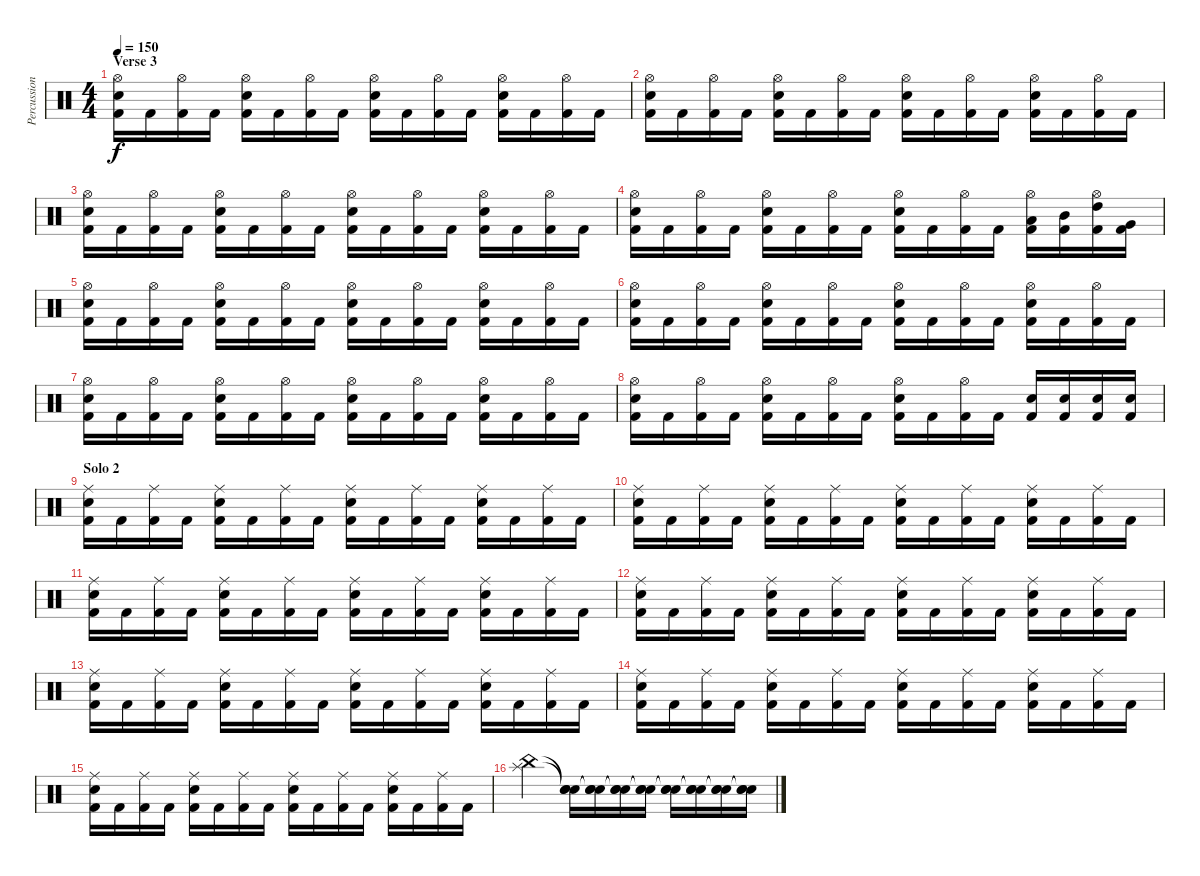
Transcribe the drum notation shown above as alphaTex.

\track ("Percussion" "Percussion") {instrument percussion}
\staff {score}
\articulation defaults
\ts (4 4)
\section ("" "Verse 3")
\tempo 150
\clef neutral
\ks c
("Hi-Hat (open)" "Snare (hit) 2" "Kick (hit) 2").16{dy f} "Kick (hit) 2".16 ("Hi-Hat (open)" "Kick (hit) 2").16 "Kick (hit) 2".16 ("Hi-Hat (open)" "Snare (hit) 2" "Kick (hit) 2").16 "Kick (hit) 2".16 ("Hi-Hat (open)" "Kick (hit) 2").16 "Kick (hit) 2".16 ("Hi-Hat (open)" "Snare (hit) 2" "Kick (hit) 2").16 "Kick (hit) 2".16 ("Hi-Hat (open)" "Kick (hit) 2").16 "Kick (hit) 2".16 ("Hi-Hat (open)" "Snare (hit) 2" "Kick (hit) 2").16 "Kick (hit) 2".16 ("Hi-Hat (open)" "Kick (hit) 2").16 "Kick (hit) 2".16 |
("Hi-Hat (open)" "Snare (hit) 2" "Kick (hit) 2").16 "Kick (hit) 2".16 ("Hi-Hat (open)" "Kick (hit) 2").16 "Kick (hit) 2".16 ("Hi-Hat (open)" "Snare (hit) 2" "Kick (hit) 2").16 "Kick (hit) 2".16 ("Hi-Hat (open)" "Kick (hit) 2").16 "Kick (hit) 2".16 ("Hi-Hat (open)" "Snare (hit) 2" "Kick (hit) 2").16 "Kick (hit) 2".16 ("Hi-Hat (open)" "Kick (hit) 2").16 "Kick (hit) 2".16 ("Hi-Hat (open)" "Snare (hit) 2" "Kick (hit) 2").16 "Kick (hit) 2".16 ("Hi-Hat (open)" "Kick (hit) 2").16 "Kick (hit) 2".16 |
("Hi-Hat (open)" "Snare (hit) 2" "Kick (hit) 2").16 "Kick (hit) 2".16 ("Hi-Hat (open)" "Kick (hit) 2").16 "Kick (hit) 2".16 ("Hi-Hat (open)" "Snare (hit) 2" "Kick (hit) 2").16 "Kick (hit) 2".16 ("Hi-Hat (open)" "Kick (hit) 2").16 "Kick (hit) 2".16 ("Hi-Hat (open)" "Snare (hit) 2" "Kick (hit) 2").16 "Kick (hit) 2".16 ("Hi-Hat (open)" "Kick (hit) 2").16 "Kick (hit) 2".16 ("Hi-Hat (open)" "Snare (hit) 2" "Kick (hit) 2").16 "Kick (hit) 2".16 ("Hi-Hat (open)" "Kick (hit) 2").16 "Kick (hit) 2".16 |
("Hi-Hat (open)" "Snare (hit) 2" "Kick (hit) 2").16 "Kick (hit) 2".16 ("Hi-Hat (open)" "Kick (hit) 2").16 "Kick (hit) 2".16 ("Hi-Hat (open)" "Snare (hit) 2" "Kick (hit) 2").16 "Kick (hit) 2".16 ("Hi-Hat (open)" "Kick (hit) 2").16 "Kick (hit) 2".16 ("Hi-Hat (open)" "Snare (hit) 2" "Kick (hit) 2").16 "Kick (hit) 2".16 ("Hi-Hat (open)" "Kick (hit) 2").16 "Kick (hit) 2".16 ("Hi-Hat (open)" "Low Tom (hit)" "Kick (hit) 2").16 ("Mid Tom (hit)" "Kick (hit) 2").16 ("Hi-Hat (open)" "High Tom (hit)" "Kick (hit) 2").16 ("Very Low Tom (hit)" "Kick (hit) 2").16 |
("Hi-Hat (open)" "Snare (hit) 2" "Kick (hit) 2").16 "Kick (hit) 2".16 ("Hi-Hat (open)" "Kick (hit) 2").16 "Kick (hit) 2".16 ("Hi-Hat (open)" "Snare (hit) 2" "Kick (hit) 2").16 "Kick (hit) 2".16 ("Hi-Hat (open)" "Kick (hit) 2").16 "Kick (hit) 2".16 ("Hi-Hat (open)" "Snare (hit) 2" "Kick (hit) 2").16 "Kick (hit) 2".16 ("Hi-Hat (open)" "Kick (hit) 2").16 "Kick (hit) 2".16 ("Hi-Hat (open)" "Snare (hit) 2" "Kick (hit) 2").16 "Kick (hit) 2".16 ("Hi-Hat (open)" "Kick (hit) 2").16 "Kick (hit) 2".16 |
("Hi-Hat (open)" "Snare (hit) 2" "Kick (hit) 2").16 "Kick (hit) 2".16 ("Hi-Hat (open)" "Kick (hit) 2").16 "Kick (hit) 2".16 ("Hi-Hat (open)" "Snare (hit) 2" "Kick (hit) 2").16 "Kick (hit) 2".16 ("Hi-Hat (open)" "Kick (hit) 2").16 "Kick (hit) 2".16 ("Hi-Hat (open)" "Snare (hit) 2" "Kick (hit) 2").16 "Kick (hit) 2".16 ("Hi-Hat (open)" "Kick (hit) 2").16 "Kick (hit) 2".16 ("Hi-Hat (open)" "Snare (hit) 2" "Kick (hit) 2").16 "Kick (hit) 2".16 ("Hi-Hat (open)" "Kick (hit) 2").16 "Kick (hit) 2".16 |
("Hi-Hat (open)" "Snare (hit) 2" "Kick (hit) 2").16 "Kick (hit) 2".16 ("Hi-Hat (open)" "Kick (hit) 2").16 "Kick (hit) 2".16 ("Hi-Hat (open)" "Snare (hit) 2" "Kick (hit) 2").16 "Kick (hit) 2".16 ("Hi-Hat (open)" "Kick (hit) 2").16 "Kick (hit) 2".16 ("Hi-Hat (open)" "Snare (hit) 2" "Kick (hit) 2").16 "Kick (hit) 2".16 ("Hi-Hat (open)" "Kick (hit) 2").16 "Kick (hit) 2".16 ("Hi-Hat (open)" "Snare (hit) 2" "Kick (hit) 2").16 "Kick (hit) 2".16 ("Hi-Hat (open)" "Kick (hit) 2").16 "Kick (hit) 2".16 |
("Hi-Hat (open)" "Snare (hit) 2" "Kick (hit) 2").16 "Kick (hit) 2".16 ("Hi-Hat (open)" "Kick (hit) 2").16 "Kick (hit) 2".16 ("Hi-Hat (open)" "Snare (hit) 2" "Kick (hit) 2").16 "Kick (hit) 2".16 ("Hi-Hat (open)" "Kick (hit) 2").16 "Kick (hit) 2".16 ("Hi-Hat (open)" "Snare (hit) 2" "Kick (hit) 2").16 "Kick (hit) 2".16 ("Hi-Hat (open)" "Kick (hit) 2").16 "Kick (hit) 2".16 ("Snare (hit) 2" "Kick (hit) 2").16 ("Snare (hit) 2" "Kick (hit) 2").16 ("Snare (hit) 2" "Kick (hit) 2").16 ("Snare (hit) 2" "Kick (hit) 2").16 |
\section ("" "Solo 2")
("Ride (middle)" "Snare (hit) 2" "Kick (hit) 2").16 "Kick (hit) 2".16 ("Ride (middle)" "Kick (hit) 2").16 "Kick (hit) 2".16 ("Ride (middle)" "Snare (hit) 2" "Kick (hit) 2").16 "Kick (hit) 2".16 ("Ride (middle)" "Kick (hit) 2").16 "Kick (hit) 2".16 ("Ride (middle)" "Snare (hit) 2" "Kick (hit) 2").16 "Kick (hit) 2".16 ("Ride (middle)" "Kick (hit) 2").16 "Kick (hit) 2".16 ("Ride (middle)" "Snare (hit) 2" "Kick (hit) 2").16 "Kick (hit) 2".16 ("Ride (middle)" "Kick (hit) 2").16 "Kick (hit) 2".16 |
("Ride (middle)" "Snare (hit) 2" "Kick (hit) 2").16 "Kick (hit) 2".16 ("Ride (middle)" "Kick (hit) 2").16 "Kick (hit) 2".16 ("Ride (middle)" "Snare (hit) 2" "Kick (hit) 2").16 "Kick (hit) 2".16 ("Ride (middle)" "Kick (hit) 2").16 "Kick (hit) 2".16 ("Ride (middle)" "Snare (hit) 2" "Kick (hit) 2").16 "Kick (hit) 2".16 ("Ride (middle)" "Kick (hit) 2").16 "Kick (hit) 2".16 ("Ride (middle)" "Snare (hit) 2" "Kick (hit) 2").16 "Kick (hit) 2".16 ("Ride (middle)" "Kick (hit) 2").16 "Kick (hit) 2".16 |
("Ride (middle)" "Snare (hit) 2" "Kick (hit) 2").16 "Kick (hit) 2".16 ("Ride (middle)" "Kick (hit) 2").16 "Kick (hit) 2".16 ("Ride (middle)" "Snare (hit) 2" "Kick (hit) 2").16 "Kick (hit) 2".16 ("Ride (middle)" "Kick (hit) 2").16 "Kick (hit) 2".16 ("Ride (middle)" "Snare (hit) 2" "Kick (hit) 2").16 "Kick (hit) 2".16 ("Ride (middle)" "Kick (hit) 2").16 "Kick (hit) 2".16 ("Ride (middle)" "Snare (hit) 2" "Kick (hit) 2").16 "Kick (hit) 2".16 ("Ride (middle)" "Kick (hit) 2").16 "Kick (hit) 2".16 |
("Ride (middle)" "Snare (hit) 2" "Kick (hit) 2").16 "Kick (hit) 2".16 ("Ride (middle)" "Kick (hit) 2").16 "Kick (hit) 2".16 ("Ride (middle)" "Snare (hit) 2" "Kick (hit) 2").16 "Kick (hit) 2".16 ("Ride (middle)" "Kick (hit) 2").16 "Kick (hit) 2".16 ("Ride (middle)" "Snare (hit) 2" "Kick (hit) 2").16 "Kick (hit) 2".16 ("Ride (middle)" "Kick (hit) 2").16 "Kick (hit) 2".16 ("Ride (middle)" "Snare (hit) 2" "Kick (hit) 2").16 "Kick (hit) 2".16 ("Ride (middle)" "Kick (hit) 2").16 "Kick (hit) 2".16 |
("Ride (middle)" "Snare (hit) 2" "Kick (hit) 2").16 "Kick (hit) 2".16 ("Ride (middle)" "Kick (hit) 2").16 "Kick (hit) 2".16 ("Ride (middle)" "Snare (hit) 2" "Kick (hit) 2").16 "Kick (hit) 2".16 ("Ride (middle)" "Kick (hit) 2").16 "Kick (hit) 2".16 ("Ride (middle)" "Snare (hit) 2" "Kick (hit) 2").16 "Kick (hit) 2".16 ("Ride (middle)" "Kick (hit) 2").16 "Kick (hit) 2".16 ("Ride (middle)" "Snare (hit) 2" "Kick (hit) 2").16 "Kick (hit) 2".16 ("Ride (middle)" "Kick (hit) 2").16 "Kick (hit) 2".16 |
("Ride (middle)" "Snare (hit) 2" "Kick (hit) 2").16 "Kick (hit) 2".16 ("Ride (middle)" "Kick (hit) 2").16 "Kick (hit) 2".16 ("Ride (middle)" "Snare (hit) 2" "Kick (hit) 2").16 "Kick (hit) 2".16 ("Ride (middle)" "Kick (hit) 2").16 "Kick (hit) 2".16 ("Ride (middle)" "Snare (hit) 2" "Kick (hit) 2").16 "Kick (hit) 2".16 ("Ride (middle)" "Kick (hit) 2").16 "Kick (hit) 2".16 ("Ride (middle)" "Snare (hit) 2" "Kick (hit) 2").16 "Kick (hit) 2".16 ("Ride (middle)" "Kick (hit) 2").16 "Kick (hit) 2".16 |
("Ride (middle)" "Snare (hit) 2" "Kick (hit) 2").16 "Kick (hit) 2".16 ("Ride (middle)" "Kick (hit) 2").16 "Kick (hit) 2".16 ("Ride (middle)" "Snare (hit) 2" "Kick (hit) 2").16 "Kick (hit) 2".16 ("Ride (middle)" "Kick (hit) 2").16 "Kick (hit) 2".16 ("Ride (middle)" "Snare (hit) 2" "Kick (hit) 2").16 "Kick (hit) 2".16 ("Ride (middle)" "Kick (hit) 2").16 "Kick (hit) 2".16 ("Ride (middle)" "Snare (hit) 2" "Kick (hit) 2").16 "Kick (hit) 2".16 ("Ride (middle)" "Kick (hit) 2").16 "Kick (hit) 2".16 |
("Splash (hit)" "China (hit)").2 ("Snare (hit)"{t} "Snare (hit)"{t} "Snare (hit) 2").16 ("Snare (hit)"{t} "Snare (hit)"{t} "Snare (hit) 2").16 ("Snare (hit)"{t} "Snare (hit)"{t} "Snare (hit) 2").16 ("Snare (hit)"{t} "Snare (hit)"{t} "Snare (hit) 2").16 ("Snare (hit)"{t} "Snare (hit)"{t} "Snare (hit) 2").16 ("Snare (hit)"{t} "Snare (hit)"{t} "Snare (hit) 2").16 ("Snare (hit)"{t} "Snare (hit)"{t} "Snare (hit) 2").16 ("Snare (hit)"{t} "Snare (hit)"{t} "Snare (hit) 2").16
